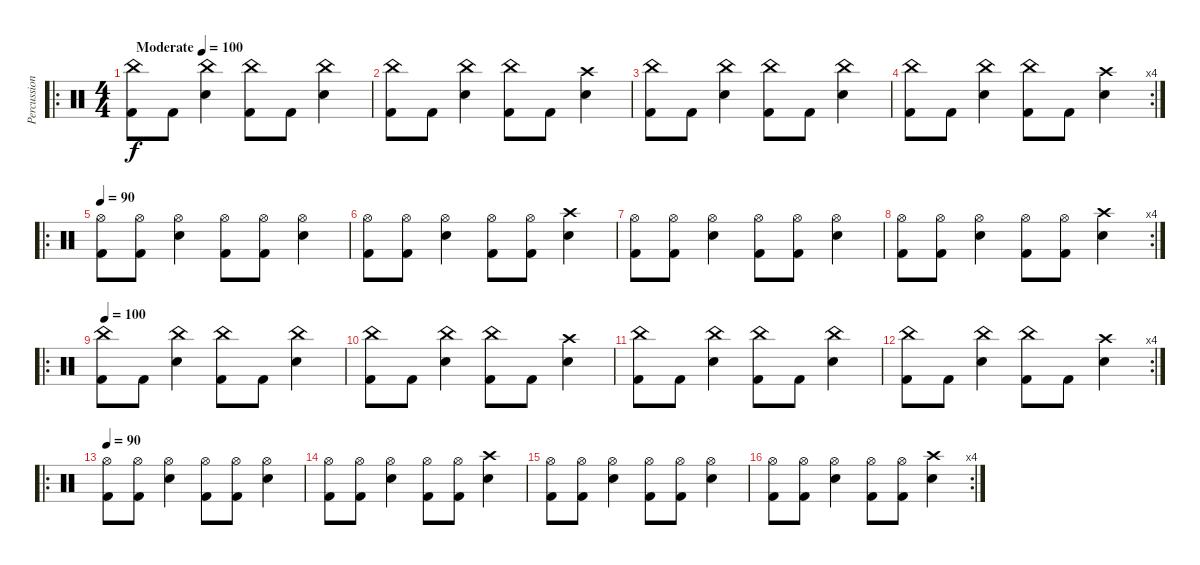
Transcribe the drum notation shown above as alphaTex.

\track ("Percussion" "Percussion") {instrument percussion}
\staff {score}
\articulation defaults
\ro
\ts (4 4)
\tempo (100 "Moderate")
\clef neutral
\ks c
("China (hit)" "Kick (hit) 2").8{dy f} "Kick (hit) 2".8 ("China (hit)" "Electric Snare (hit)").4 ("China (hit)" "Kick (hit) 2").8 "Kick (hit) 2".8 ("China (hit)" "Electric Snare (hit)").4 |
("China (hit)" "Kick (hit) 2").8 "Kick (hit) 2".8 ("China (hit)" "Electric Snare (hit)").4 ("China (hit)" "Kick (hit) 2").8 "Kick (hit) 2".8 ("Crash high (hit)" "Electric Snare (hit)").4 |
("China (hit)" "Kick (hit) 2").8 "Kick (hit) 2".8 ("China (hit)" "Electric Snare (hit)").4 ("China (hit)" "Kick (hit) 2").8 "Kick (hit) 2".8 ("China (hit)" "Electric Snare (hit)").4 |
\rc 4
("China (hit)" "Kick (hit) 2").8 "Kick (hit) 2".8 ("China (hit)" "Electric Snare (hit)").4 ("China (hit)" "Kick (hit) 2").8 "Kick (hit) 2".8 ("Crash high (hit)" "Electric Snare (hit)").4 |
\ro
\tempo 90
("Hi-Hat (open)" "Kick (hit) 2").8{volume 16} ("Hi-Hat (open)" "Kick (hit) 2").8 ("Hi-Hat (open)" "Electric Snare (hit)").4 ("Hi-Hat (open)" "Kick (hit) 2").8 ("Hi-Hat (open)" "Kick (hit) 2").8 ("Hi-Hat (open)" "Electric Snare (hit)").4 |
("Hi-Hat (open)" "Kick (hit) 2").8 ("Hi-Hat (open)" "Kick (hit) 2").8 ("Hi-Hat (open)" "Electric Snare (hit)").4 ("Hi-Hat (open)" "Kick (hit) 2").8 ("Hi-Hat (open)" "Kick (hit) 2").8 ("Crash high (hit)" "Electric Snare (hit)").4 |
("Hi-Hat (open)" "Kick (hit) 2").8 ("Hi-Hat (open)" "Kick (hit) 2").8 ("Hi-Hat (open)" "Electric Snare (hit)").4 ("Hi-Hat (open)" "Kick (hit) 2").8 ("Hi-Hat (open)" "Kick (hit) 2").8 ("Hi-Hat (open)" "Electric Snare (hit)").4 |
\rc 4
("Hi-Hat (open)" "Kick (hit) 2").8 ("Hi-Hat (open)" "Kick (hit) 2").8 ("Hi-Hat (open)" "Electric Snare (hit)").4 ("Hi-Hat (open)" "Kick (hit) 2").8 ("Hi-Hat (open)" "Kick (hit) 2").8 ("Crash high (hit)" "Electric Snare (hit)").4 |
\ro
\tempo 100
("China (hit)" "Kick (hit) 2").8 "Kick (hit) 2".8 ("China (hit)" "Electric Snare (hit)").4 ("China (hit)" "Kick (hit) 2").8 "Kick (hit) 2".8 ("China (hit)" "Electric Snare (hit)").4 |
("China (hit)" "Kick (hit) 2").8 "Kick (hit) 2".8 ("China (hit)" "Electric Snare (hit)").4 ("China (hit)" "Kick (hit) 2").8 "Kick (hit) 2".8 ("Crash high (hit)" "Electric Snare (hit)").4 |
("China (hit)" "Kick (hit) 2").8 "Kick (hit) 2".8 ("China (hit)" "Electric Snare (hit)").4 ("China (hit)" "Kick (hit) 2").8 "Kick (hit) 2".8 ("China (hit)" "Electric Snare (hit)").4 |
\rc 4
("China (hit)" "Kick (hit) 2").8 "Kick (hit) 2".8 ("China (hit)" "Electric Snare (hit)").4 ("China (hit)" "Kick (hit) 2").8 "Kick (hit) 2".8 ("Crash high (hit)" "Electric Snare (hit)").4 |
\ro
\tempo 90
("Hi-Hat (open)" "Kick (hit) 2").8 ("Hi-Hat (open)" "Kick (hit) 2").8 ("Hi-Hat (open)" "Electric Snare (hit)").4 ("Hi-Hat (open)" "Kick (hit) 2").8 ("Hi-Hat (open)" "Kick (hit) 2").8 ("Hi-Hat (open)" "Electric Snare (hit)").4 |
("Hi-Hat (open)" "Kick (hit) 2").8 ("Hi-Hat (open)" "Kick (hit) 2").8 ("Hi-Hat (open)" "Electric Snare (hit)").4 ("Hi-Hat (open)" "Kick (hit) 2").8 ("Hi-Hat (open)" "Kick (hit) 2").8 ("Crash high (hit)" "Electric Snare (hit)").4 |
("Hi-Hat (open)" "Kick (hit) 2").8 ("Hi-Hat (open)" "Kick (hit) 2").8 ("Hi-Hat (open)" "Electric Snare (hit)").4 ("Hi-Hat (open)" "Kick (hit) 2").8 ("Hi-Hat (open)" "Kick (hit) 2").8 ("Hi-Hat (open)" "Electric Snare (hit)").4 |
\rc 4
("Hi-Hat (open)" "Kick (hit) 2").8 ("Hi-Hat (open)" "Kick (hit) 2").8 ("Hi-Hat (open)" "Electric Snare (hit)").4 ("Hi-Hat (open)" "Kick (hit) 2").8 ("Hi-Hat (open)" "Kick (hit) 2").8 ("Crash high (hit)" "Electric Snare (hit)").4
